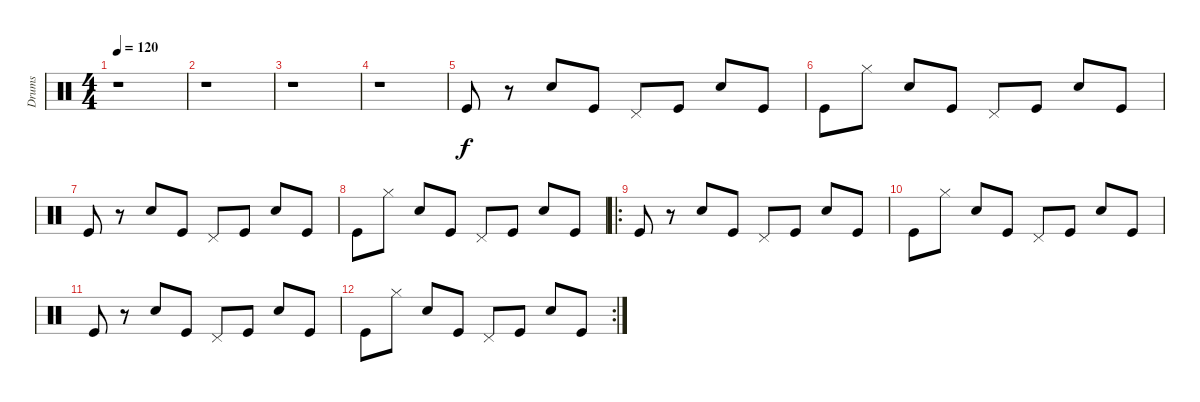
\track ("Drums" "Drums") {instrument percussion}
\staff {score}
\articulation defaults
\ts (4 4)
\tempo 120
\clef neutral
\ks c
r.1{dy f} |
r.1 |
r.1 |
r.1 |
"Kick (hit)".8 r.8 "Electric Snare (hit)".8 "Kick (hit)".8 "Pedal Hi-Hat (hit)".8 "Kick (hit)".8 "Electric Snare (hit)".8 "Kick (hit)".8 |
"Kick (hit)".8 "Hi-Hat (closed)".8 "Electric Snare (hit)".8 "Kick (hit)".8 "Pedal Hi-Hat (hit)".8 "Kick (hit)".8 "Electric Snare (hit)".8 "Kick (hit)".8 |
"Kick (hit)".8 r.8 "Electric Snare (hit)".8 "Kick (hit)".8 "Pedal Hi-Hat (hit)".8 "Kick (hit)".8 "Electric Snare (hit)".8 "Kick (hit)".8 |
"Kick (hit)".8 "Hi-Hat (closed)".8 "Electric Snare (hit)".8 "Kick (hit)".8 "Pedal Hi-Hat (hit)".8 "Kick (hit)".8 "Electric Snare (hit)".8 "Kick (hit)".8 |
\ro "Kick (hit)".8
r.8 "Electric Snare (hit)".8 "Kick (hit)".8 "Pedal Hi-Hat (hit)".8 "Kick (hit)".8 "Electric Snare (hit)".8 "Kick (hit)".8 |
"Kick (hit)".8 "Hi-Hat (closed)".8 "Electric Snare (hit)".8 "Kick (hit)".8 "Pedal Hi-Hat (hit)".8 "Kick (hit)".8 "Electric Snare (hit)".8 "Kick (hit)".8 |
"Kick (hit)".8 r.8 "Electric Snare (hit)".8 "Kick (hit)".8 "Pedal Hi-Hat (hit)".8 "Kick (hit)".8 "Electric Snare (hit)".8 "Kick (hit)".8 |
\rc 2 "Kick (hit)".8 "Hi-Hat (closed)".8 "Electric Snare (hit)".8 "Kick (hit)".8 "Pedal Hi-Hat (hit)".8 "Kick (hit)".8 "Electric Snare (hit)".8 "Kick (hit)".8
